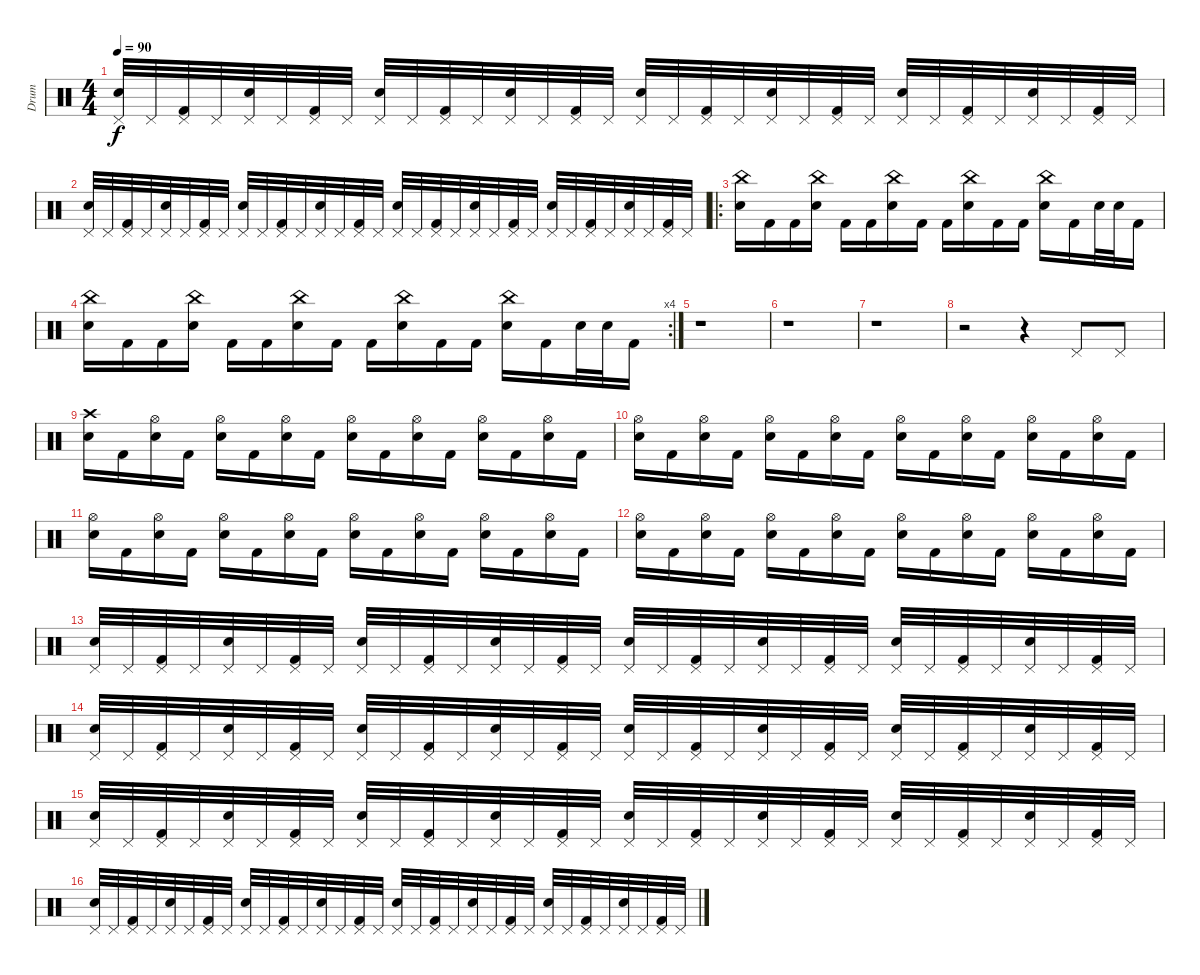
\track ("Drum" "Drum") {instrument percussion}
\staff {score}
\articulation defaults
\ts (4 4)
\tempo 90
\clef neutral
\ks c
("Pedal Hi-Hat (hit)" "Electric Snare (hit)").32{dy f} "Pedal Hi-Hat (hit)".32 ("Pedal Hi-Hat (hit)" "Kick (hit) 2").32 "Pedal Hi-Hat (hit)".32 ("Pedal Hi-Hat (hit)" "Electric Snare (hit)").32 "Pedal Hi-Hat (hit)".32 ("Pedal Hi-Hat (hit)" "Kick (hit) 2").32 "Pedal Hi-Hat (hit)".32 ("Pedal Hi-Hat (hit)" "Electric Snare (hit)").32 "Pedal Hi-Hat (hit)".32 ("Pedal Hi-Hat (hit)" "Kick (hit) 2").32 "Pedal Hi-Hat (hit)".32 ("Pedal Hi-Hat (hit)" "Electric Snare (hit)").32 "Pedal Hi-Hat (hit)".32 ("Pedal Hi-Hat (hit)" "Kick (hit) 2").32 "Pedal Hi-Hat (hit)".32 ("Pedal Hi-Hat (hit)" "Electric Snare (hit)").32 "Pedal Hi-Hat (hit)".32 ("Pedal Hi-Hat (hit)" "Kick (hit) 2").32 "Pedal Hi-Hat (hit)".32 ("Pedal Hi-Hat (hit)" "Electric Snare (hit)").32 "Pedal Hi-Hat (hit)".32 ("Pedal Hi-Hat (hit)" "Kick (hit) 2").32 "Pedal Hi-Hat (hit)".32 ("Pedal Hi-Hat (hit)" "Electric Snare (hit)").32 "Pedal Hi-Hat (hit)".32 ("Pedal Hi-Hat (hit)" "Kick (hit) 2").32 "Pedal Hi-Hat (hit)".32 ("Pedal Hi-Hat (hit)" "Electric Snare (hit)").32 "Pedal Hi-Hat (hit)".32 ("Pedal Hi-Hat (hit)" "Kick (hit) 2").32 "Pedal Hi-Hat (hit)".32 |
("Pedal Hi-Hat (hit)" "Electric Snare (hit)").32 "Pedal Hi-Hat (hit)".32 ("Pedal Hi-Hat (hit)" "Kick (hit) 2").32 "Pedal Hi-Hat (hit)".32 ("Pedal Hi-Hat (hit)" "Electric Snare (hit)").32 "Pedal Hi-Hat (hit)".32 ("Pedal Hi-Hat (hit)" "Kick (hit) 2").32 "Pedal Hi-Hat (hit)".32 ("Pedal Hi-Hat (hit)" "Electric Snare (hit)").32 "Pedal Hi-Hat (hit)".32 ("Pedal Hi-Hat (hit)" "Kick (hit) 2").32 "Pedal Hi-Hat (hit)".32 ("Pedal Hi-Hat (hit)" "Electric Snare (hit)").32 "Pedal Hi-Hat (hit)".32 ("Pedal Hi-Hat (hit)" "Kick (hit) 2").32 "Pedal Hi-Hat (hit)".32 ("Pedal Hi-Hat (hit)" "Electric Snare (hit)").32 "Pedal Hi-Hat (hit)".32 ("Pedal Hi-Hat (hit)" "Kick (hit) 2").32 "Pedal Hi-Hat (hit)".32 ("Pedal Hi-Hat (hit)" "Electric Snare (hit)").32 "Pedal Hi-Hat (hit)".32 ("Pedal Hi-Hat (hit)" "Kick (hit) 2").32 "Pedal Hi-Hat (hit)".32 ("Pedal Hi-Hat (hit)" "Electric Snare (hit)").32 "Pedal Hi-Hat (hit)".32 ("Pedal Hi-Hat (hit)" "Kick (hit) 2").32 "Pedal Hi-Hat (hit)".32 ("Pedal Hi-Hat (hit)" "Electric Snare (hit)").32 "Pedal Hi-Hat (hit)".32 ("Pedal Hi-Hat (hit)" "Kick (hit) 2").32 "Pedal Hi-Hat (hit)".32 |
\ro
("China (hit)" "Electric Snare (hit)").16 "Kick (hit) 2".16 "Kick (hit) 2".16 ("China (hit)" "Electric Snare (hit)").16 "Kick (hit) 2".16 "Kick (hit) 2".16 ("China (hit)" "Electric Snare (hit)").16 "Kick (hit) 2".16 "Kick (hit) 2".16 ("China (hit)" "Electric Snare (hit)").16 "Kick (hit) 2".16 "Kick (hit) 2".16 ("China (hit)" "Electric Snare (hit)").16 "Kick (hit) 2".16 "Electric Snare (hit)".32 "Electric Snare (hit)".32 "Kick (hit) 2".16 |
\rc 4
("China (hit)" "Electric Snare (hit)").16 "Kick (hit) 2".16 "Kick (hit) 2".16 ("China (hit)" "Electric Snare (hit)").16 "Kick (hit) 2".16 "Kick (hit) 2".16 ("China (hit)" "Electric Snare (hit)").16 "Kick (hit) 2".16 "Kick (hit) 2".16 ("China (hit)" "Electric Snare (hit)").16 "Kick (hit) 2".16 "Kick (hit) 2".16 ("China (hit)" "Electric Snare (hit)").16 "Kick (hit) 2".16 "Electric Snare (hit)".32 "Electric Snare (hit)".32 "Kick (hit) 2".16 |
r.1 |
r.1 |
r.1 |
r.2 r.4 "Pedal Hi-Hat (hit)".8 "Pedal Hi-Hat (hit)".8 |
("Crash high (hit)" "Electric Snare (hit)").16 "Kick (hit) 2".16 ("Hi-Hat (open)" "Electric Snare (hit)").16 "Kick (hit) 2".16 ("Hi-Hat (open)" "Electric Snare (hit)").16 "Kick (hit) 2".16 ("Hi-Hat (open)" "Electric Snare (hit)").16 "Kick (hit) 2".16 ("Hi-Hat (open)" "Electric Snare (hit)").16 "Kick (hit) 2".16 ("Hi-Hat (open)" "Electric Snare (hit)").16 "Kick (hit) 2".16 ("Hi-Hat (open)" "Electric Snare (hit)").16 "Kick (hit) 2".16 ("Hi-Hat (open)" "Electric Snare (hit)").16 "Kick (hit) 2".16 |
("Hi-Hat (open)" "Electric Snare (hit)").16 "Kick (hit) 2".16 ("Hi-Hat (open)" "Electric Snare (hit)").16 "Kick (hit) 2".16 ("Hi-Hat (open)" "Electric Snare (hit)").16 "Kick (hit) 2".16 ("Hi-Hat (open)" "Electric Snare (hit)").16 "Kick (hit) 2".16 ("Hi-Hat (open)" "Electric Snare (hit)").16 "Kick (hit) 2".16 ("Hi-Hat (open)" "Electric Snare (hit)").16 "Kick (hit) 2".16 ("Hi-Hat (open)" "Electric Snare (hit)").16 "Kick (hit) 2".16 ("Hi-Hat (open)" "Electric Snare (hit)").16 "Kick (hit) 2".16 |
("Hi-Hat (open)" "Electric Snare (hit)").16 "Kick (hit) 2".16 ("Hi-Hat (open)" "Electric Snare (hit)").16 "Kick (hit) 2".16 ("Hi-Hat (open)" "Electric Snare (hit)").16 "Kick (hit) 2".16 ("Hi-Hat (open)" "Electric Snare (hit)").16 "Kick (hit) 2".16 ("Hi-Hat (open)" "Electric Snare (hit)").16 "Kick (hit) 2".16 ("Hi-Hat (open)" "Electric Snare (hit)").16 "Kick (hit) 2".16 ("Hi-Hat (open)" "Electric Snare (hit)").16 "Kick (hit) 2".16 ("Hi-Hat (open)" "Electric Snare (hit)").16 "Kick (hit) 2".16 |
("Hi-Hat (open)" "Electric Snare (hit)").16 "Kick (hit) 2".16 ("Hi-Hat (open)" "Electric Snare (hit)").16 "Kick (hit) 2".16 ("Hi-Hat (open)" "Electric Snare (hit)").16 "Kick (hit) 2".16 ("Hi-Hat (open)" "Electric Snare (hit)").16 "Kick (hit) 2".16 ("Hi-Hat (open)" "Electric Snare (hit)").16 "Kick (hit) 2".16 ("Hi-Hat (open)" "Electric Snare (hit)").16 "Kick (hit) 2".16 ("Hi-Hat (open)" "Electric Snare (hit)").16 "Kick (hit) 2".16 ("Hi-Hat (open)" "Electric Snare (hit)").16 "Kick (hit) 2".16 |
("Pedal Hi-Hat (hit)" "Electric Snare (hit)").32 "Pedal Hi-Hat (hit)".32 ("Pedal Hi-Hat (hit)" "Kick (hit) 2").32 "Pedal Hi-Hat (hit)".32 ("Pedal Hi-Hat (hit)" "Electric Snare (hit)").32 "Pedal Hi-Hat (hit)".32 ("Pedal Hi-Hat (hit)" "Kick (hit) 2").32 "Pedal Hi-Hat (hit)".32 ("Pedal Hi-Hat (hit)" "Electric Snare (hit)").32 "Pedal Hi-Hat (hit)".32 ("Pedal Hi-Hat (hit)" "Kick (hit) 2").32 "Pedal Hi-Hat (hit)".32 ("Pedal Hi-Hat (hit)" "Electric Snare (hit)").32 "Pedal Hi-Hat (hit)".32 ("Pedal Hi-Hat (hit)" "Kick (hit) 2").32 "Pedal Hi-Hat (hit)".32 ("Pedal Hi-Hat (hit)" "Electric Snare (hit)").32 "Pedal Hi-Hat (hit)".32 ("Pedal Hi-Hat (hit)" "Kick (hit) 2").32 "Pedal Hi-Hat (hit)".32 ("Pedal Hi-Hat (hit)" "Electric Snare (hit)").32 "Pedal Hi-Hat (hit)".32 ("Pedal Hi-Hat (hit)" "Kick (hit) 2").32 "Pedal Hi-Hat (hit)".32 ("Pedal Hi-Hat (hit)" "Electric Snare (hit)").32 "Pedal Hi-Hat (hit)".32 ("Pedal Hi-Hat (hit)" "Kick (hit) 2").32 "Pedal Hi-Hat (hit)".32 ("Pedal Hi-Hat (hit)" "Electric Snare (hit)").32 "Pedal Hi-Hat (hit)".32 ("Pedal Hi-Hat (hit)" "Kick (hit) 2").32 "Pedal Hi-Hat (hit)".32 |
("Pedal Hi-Hat (hit)" "Electric Snare (hit)").32 "Pedal Hi-Hat (hit)".32 ("Pedal Hi-Hat (hit)" "Kick (hit) 2").32 "Pedal Hi-Hat (hit)".32 ("Pedal Hi-Hat (hit)" "Electric Snare (hit)").32 "Pedal Hi-Hat (hit)".32 ("Pedal Hi-Hat (hit)" "Kick (hit) 2").32 "Pedal Hi-Hat (hit)".32 ("Pedal Hi-Hat (hit)" "Electric Snare (hit)").32 "Pedal Hi-Hat (hit)".32 ("Pedal Hi-Hat (hit)" "Kick (hit) 2").32 "Pedal Hi-Hat (hit)".32 ("Pedal Hi-Hat (hit)" "Electric Snare (hit)").32 "Pedal Hi-Hat (hit)".32 ("Pedal Hi-Hat (hit)" "Kick (hit) 2").32 "Pedal Hi-Hat (hit)".32 ("Pedal Hi-Hat (hit)" "Electric Snare (hit)").32 "Pedal Hi-Hat (hit)".32 ("Pedal Hi-Hat (hit)" "Kick (hit) 2").32 "Pedal Hi-Hat (hit)".32 ("Pedal Hi-Hat (hit)" "Electric Snare (hit)").32 "Pedal Hi-Hat (hit)".32 ("Pedal Hi-Hat (hit)" "Kick (hit) 2").32 "Pedal Hi-Hat (hit)".32 ("Pedal Hi-Hat (hit)" "Electric Snare (hit)").32 "Pedal Hi-Hat (hit)".32 ("Pedal Hi-Hat (hit)" "Kick (hit) 2").32 "Pedal Hi-Hat (hit)".32 ("Pedal Hi-Hat (hit)" "Electric Snare (hit)").32 "Pedal Hi-Hat (hit)".32 ("Pedal Hi-Hat (hit)" "Kick (hit) 2").32 "Pedal Hi-Hat (hit)".32 |
("Pedal Hi-Hat (hit)" "Electric Snare (hit)").32 "Pedal Hi-Hat (hit)".32 ("Pedal Hi-Hat (hit)" "Kick (hit) 2").32 "Pedal Hi-Hat (hit)".32 ("Pedal Hi-Hat (hit)" "Electric Snare (hit)").32 "Pedal Hi-Hat (hit)".32 ("Pedal Hi-Hat (hit)" "Kick (hit) 2").32 "Pedal Hi-Hat (hit)".32 ("Pedal Hi-Hat (hit)" "Electric Snare (hit)").32 "Pedal Hi-Hat (hit)".32 ("Pedal Hi-Hat (hit)" "Kick (hit) 2").32 "Pedal Hi-Hat (hit)".32 ("Pedal Hi-Hat (hit)" "Electric Snare (hit)").32 "Pedal Hi-Hat (hit)".32 ("Pedal Hi-Hat (hit)" "Kick (hit) 2").32 "Pedal Hi-Hat (hit)".32 ("Pedal Hi-Hat (hit)" "Electric Snare (hit)").32 "Pedal Hi-Hat (hit)".32 ("Pedal Hi-Hat (hit)" "Kick (hit) 2").32 "Pedal Hi-Hat (hit)".32 ("Pedal Hi-Hat (hit)" "Electric Snare (hit)").32 "Pedal Hi-Hat (hit)".32 ("Pedal Hi-Hat (hit)" "Kick (hit) 2").32 "Pedal Hi-Hat (hit)".32 ("Pedal Hi-Hat (hit)" "Electric Snare (hit)").32 "Pedal Hi-Hat (hit)".32 ("Pedal Hi-Hat (hit)" "Kick (hit) 2").32 "Pedal Hi-Hat (hit)".32 ("Pedal Hi-Hat (hit)" "Electric Snare (hit)").32 "Pedal Hi-Hat (hit)".32 ("Pedal Hi-Hat (hit)" "Kick (hit) 2").32 "Pedal Hi-Hat (hit)".32 |
("Pedal Hi-Hat (hit)" "Electric Snare (hit)").32 "Pedal Hi-Hat (hit)".32 ("Pedal Hi-Hat (hit)" "Kick (hit) 2").32 "Pedal Hi-Hat (hit)".32 ("Pedal Hi-Hat (hit)" "Electric Snare (hit)").32 "Pedal Hi-Hat (hit)".32 ("Pedal Hi-Hat (hit)" "Kick (hit) 2").32 "Pedal Hi-Hat (hit)".32 ("Pedal Hi-Hat (hit)" "Electric Snare (hit)").32 "Pedal Hi-Hat (hit)".32 ("Pedal Hi-Hat (hit)" "Kick (hit) 2").32 "Pedal Hi-Hat (hit)".32 ("Pedal Hi-Hat (hit)" "Electric Snare (hit)").32 "Pedal Hi-Hat (hit)".32 ("Pedal Hi-Hat (hit)" "Kick (hit) 2").32 "Pedal Hi-Hat (hit)".32 ("Pedal Hi-Hat (hit)" "Electric Snare (hit)").32 "Pedal Hi-Hat (hit)".32 ("Pedal Hi-Hat (hit)" "Kick (hit) 2").32 "Pedal Hi-Hat (hit)".32 ("Pedal Hi-Hat (hit)" "Electric Snare (hit)").32 "Pedal Hi-Hat (hit)".32 ("Pedal Hi-Hat (hit)" "Kick (hit) 2").32 "Pedal Hi-Hat (hit)".32 ("Pedal Hi-Hat (hit)" "Electric Snare (hit)").32 "Pedal Hi-Hat (hit)".32 ("Pedal Hi-Hat (hit)" "Kick (hit) 2").32 "Pedal Hi-Hat (hit)".32 ("Pedal Hi-Hat (hit)" "Electric Snare (hit)").32 "Pedal Hi-Hat (hit)".32 ("Pedal Hi-Hat (hit)" "Kick (hit) 2").32 "Pedal Hi-Hat (hit)".32
